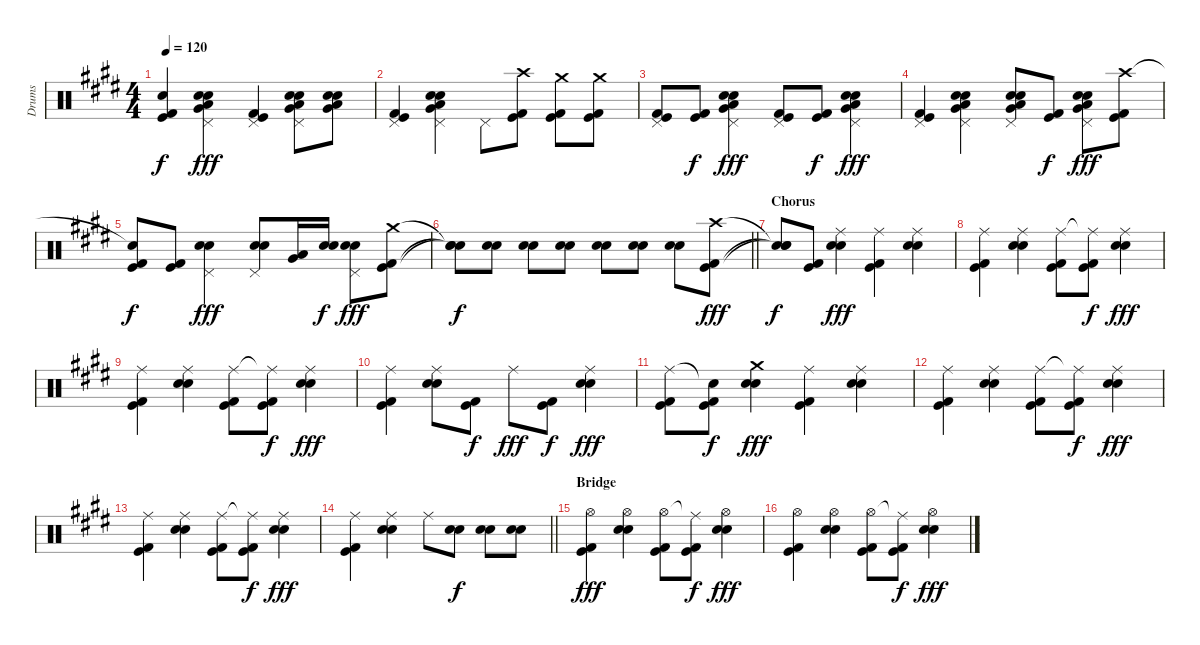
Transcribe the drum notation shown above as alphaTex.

\track ("Drums" "Drums") {instrument percussion}
\staff {score}
\articulation defaults
\ts (4 4)
\tempo 120
\clef neutral
\ks e
("Snare (hit)"{t} "Kick (hit)" "Kick (hit) 2").4{dy f} ("Pedal Hi-Hat (hit)" "Electric Snare (hit)" "Snare (hit) 2" "Very Low Tom (hit)" "Low Floor Tom (hit)").4{dy fff} ("Pedal Hi-Hat (hit)" "Kick (hit)" "Kick (hit) 2").4 ("Pedal Hi-Hat (hit)" "Electric Snare (hit)" "Snare (hit) 2" "Very Low Tom (hit)" "Low Floor Tom (hit)").8 ("Electric Snare (hit)" "Snare (hit) 2" "Very Low Tom (hit)" "Low Floor Tom (hit)").8 |
("Pedal Hi-Hat (hit)" "Kick (hit)" "Kick (hit) 2").4 ("Pedal Hi-Hat (hit)" "Electric Snare (hit)" "Snare (hit) 2" "Very Low Tom (hit)" "Low Floor Tom (hit)").4 "Pedal Hi-Hat (hit)".8 ("Crash high (hit)" "Kick (hit)" "Kick (hit) 2").8 ("Crash medium (hit)" "Kick (hit)" "Kick (hit) 2").8 ("Crash medium (hit)" "Kick (hit)" "Kick (hit) 2").8 |
("Pedal Hi-Hat (hit)" "Kick (hit)" "Kick (hit) 2").8 ("Kick (hit)" "Kick (hit) 2").8{dy f} ("Pedal Hi-Hat (hit)" "Snare (hit) 2" "Electric Snare (hit)" "Very Low Tom (hit)" "Low Floor Tom (hit)").4{dy fff} ("Pedal Hi-Hat (hit)" "Kick (hit)" "Kick (hit) 2").8 ("Kick (hit)" "Kick (hit) 2").8{dy f} ("Pedal Hi-Hat (hit)" "Electric Snare (hit)" "Snare (hit) 2" "Very Low Tom (hit)" "Low Floor Tom (hit)").4{dy fff} |
("Pedal Hi-Hat (hit)" "Kick (hit)" "Kick (hit) 2").4 ("Pedal Hi-Hat (hit)" "Electric Snare (hit)" "Snare (hit) 2" "Very Low Tom (hit)" "Low Floor Tom (hit)").4 ("Pedal Hi-Hat (hit)" "Electric Snare (hit)" "Snare (hit) 2" "Very Low Tom (hit)" "Low Floor Tom (hit)").8 ("Kick (hit)" "Kick (hit) 2").8{dy f} ("Pedal Hi-Hat (hit)" "Electric Snare (hit)" "Snare (hit) 2" "Very Low Tom (hit)" "Low Floor Tom (hit)").8{dy fff} ("Crash high (hit)" "Kick (hit)" "Kick (hit) 2").8 |
("Snare (hit)"{t} "Kick (hit)" "Kick (hit) 2").8{dy f} ("Kick (hit)" "Kick (hit) 2").8 ("Pedal Hi-Hat (hit)" "Electric Snare (hit)" "Snare (hit) 2").4{dy fff} ("Pedal Hi-Hat (hit)" "Electric Snare (hit)" "Snare (hit) 2").8 ("Very Low Tom (hit)" "Low Floor Tom (hit)").16 ("Electric Snare (hit)" "Snare (hit) 2").16{dy f} ("Pedal Hi-Hat (hit)" "Electric Snare (hit)" "Snare (hit) 2").8{dy fff} ("Crash medium (hit)" "Kick (hit)" "Kick (hit) 2").8 |
\barLineRight lightlight
("Snare (hit)"{t} "Snare (hit)"{t} "Snare (hit)"{t}).8{dy f} ("Electric Snare (hit)" "Snare (hit) 2").8 ("Electric Snare (hit)" "Snare (hit) 2").8 ("Electric Snare (hit)" "Snare (hit) 2").8 ("Electric Snare (hit)" "Snare (hit) 2").8 ("Electric Snare (hit)" "Snare (hit) 2").8 ("Electric Snare (hit)" "Snare (hit) 2").8 ("Crash high (hit)" "Kick (hit)" "Kick (hit) 2").8{dy fff} |
\section ("" "Chorus")
("Snare (hit)"{t} "Snare (hit)"{t} "Snare (hit)"{t}).8{dy f} ("Kick (hit)" "Kick (hit) 2").8 ("Ride (middle)" "Electric Snare (hit)" "Snare (hit) 2").4{dy fff} ("Ride (middle)" "Kick (hit)" "Kick (hit) 2").4 ("Ride (middle)" "Electric Snare (hit)" "Snare (hit) 2").4 |
("Ride (middle)" "Kick (hit)" "Kick (hit) 2").4 ("Ride (middle)" "Electric Snare (hit)" "Snare (hit) 2").4 ("Ride (middle)" "Kick (hit)" "Kick (hit) 2").8 ("Ride (middle)"{t} "Kick (hit)" "Kick (hit) 2").8{dy f} ("Ride (middle)" "Electric Snare (hit)" "Snare (hit) 2").4{dy fff} |
("Ride (middle)" "Kick (hit)" "Kick (hit) 2").4 ("Ride (middle)" "Electric Snare (hit)" "Snare (hit) 2").4 ("Ride (middle)" "Kick (hit)" "Kick (hit) 2").8 ("Ride (middle)"{t} "Kick (hit)" "Kick (hit) 2").8{dy f} ("Ride (middle)" "Electric Snare (hit)" "Snare (hit) 2").4{dy fff} |
("Ride (middle)" "Kick (hit)" "Kick (hit) 2").4 ("Ride (middle)" "Electric Snare (hit)" "Snare (hit) 2").8 ("Kick (hit)" "Kick (hit) 2").8{dy f} "Ride (middle)".8{dy fff} ("Kick (hit) 2" "Kick (hit)").8{dy f} ("Ride (middle)" "Electric Snare (hit)" "Snare (hit) 2").4{dy fff} |
("Ride (middle)" "Kick (hit)" "Kick (hit) 2").8 ("Snare (hit)"{t} "Kick (hit)" "Kick (hit) 2").8{dy f} ("Crash medium (hit)" "Electric Snare (hit)" "Snare (hit) 2").4{dy fff} ("Ride (middle)" "Kick (hit)" "Kick (hit) 2").4 ("Ride (middle)" "Electric Snare (hit)" "Snare (hit) 2").4 |
("Ride (middle)" "Kick (hit)" "Kick (hit) 2").4 ("Ride (middle)" "Electric Snare (hit)" "Snare (hit) 2").4 ("Ride (middle)" "Kick (hit)" "Kick (hit) 2").8 ("Ride (middle)"{t} "Kick (hit)" "Kick (hit) 2").8{dy f} ("Ride (middle)" "Electric Snare (hit)" "Snare (hit) 2").4{dy fff} |
("Ride (middle)" "Kick (hit)" "Kick (hit) 2").4 ("Ride (middle)" "Electric Snare (hit)" "Snare (hit) 2").4 ("Ride (middle)" "Kick (hit)" "Kick (hit) 2").8 ("Ride (middle)"{t} "Kick (hit)" "Kick (hit) 2").8{dy f} ("Ride (middle)" "Electric Snare (hit)" "Snare (hit) 2").4{dy fff} |
\barLineRight lightlight
("Ride (middle)" "Kick (hit)" "Kick (hit) 2").4 ("Ride (middle)" "Electric Snare (hit)" "Snare (hit) 2").4 "Ride (middle)".8 ("Electric Snare (hit)" "Snare (hit) 2").8{dy f} ("Electric Snare (hit)" "Snare (hit) 2").8 ("Electric Snare (hit)" "Snare (hit) 2").8 |
\section ("" "Bridge")
("Hi-Hat (open)" "Kick (hit)" "Kick (hit) 2").4{dy fff} ("Hi-Hat (open)" "Electric Snare (hit)" "Snare (hit) 2").4 ("Hi-Hat (open)" "Kick (hit)" "Kick (hit) 2").8 ("Ride (middle)"{t} "Kick (hit)" "Kick (hit) 2").8{dy f} ("Hi-Hat (open)" "Electric Snare (hit)" "Snare (hit) 2").4{dy fff} |
("Hi-Hat (open)" "Kick (hit)" "Kick (hit) 2").4 ("Hi-Hat (open)" "Electric Snare (hit)" "Snare (hit) 2").4 ("Hi-Hat (open)" "Kick (hit)" "Kick (hit) 2").8 ("Ride (middle)"{t} "Kick (hit)" "Kick (hit) 2").8{dy f} ("Hi-Hat (open)" "Electric Snare (hit)" "Snare (hit) 2").4{dy fff}
